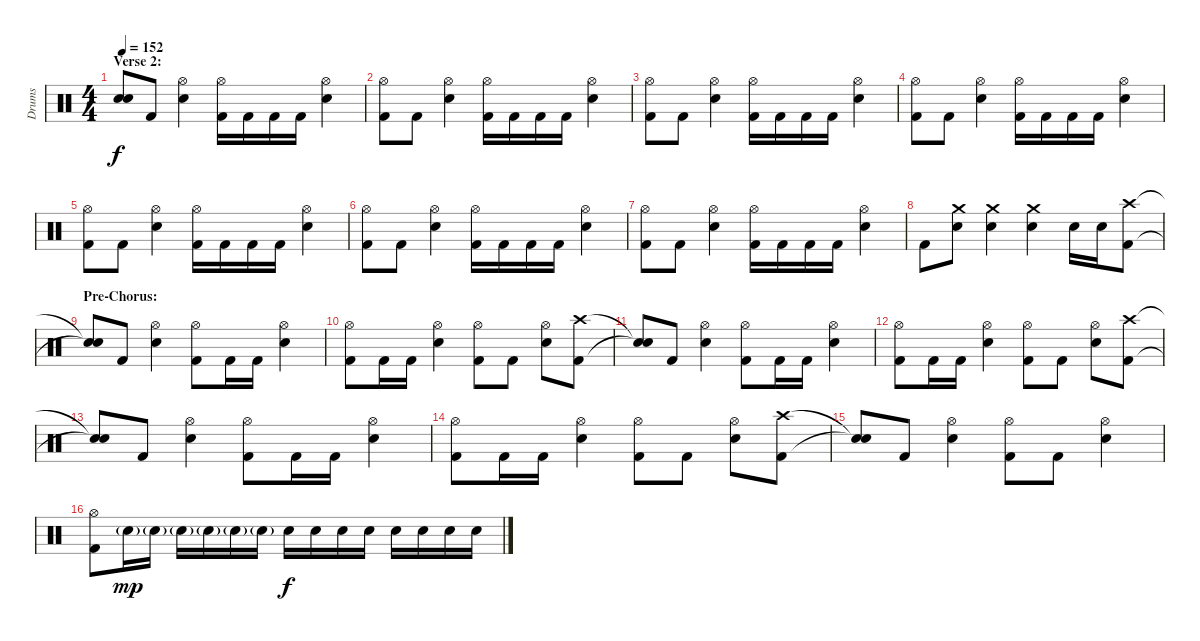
\track ("Drums" "Drums") {instrument percussion}
\staff {score}
\articulation defaults
\ts (4 4)
\section ("" "Verse 2:")
\tempo 152
\clef neutral
\ks c
("Snare (hit)"{t} "Snare (hit)"{t}).8{dy f} "Kick (hit) 2".8 ("Hi-Hat (open)" "Electric Snare (hit)").4 ("Hi-Hat (open)" "Kick (hit) 2").16 "Kick (hit) 2".16 "Kick (hit) 2".16 "Kick (hit) 2".16 ("Hi-Hat (open)" "Electric Snare (hit)").4 |
("Hi-Hat (open)" "Kick (hit) 2").8 "Kick (hit) 2".8 ("Hi-Hat (open)" "Electric Snare (hit)").4 ("Hi-Hat (open)" "Kick (hit) 2").16 "Kick (hit) 2".16 "Kick (hit) 2".16 "Kick (hit) 2".16 ("Hi-Hat (open)" "Electric Snare (hit)").4 |
("Hi-Hat (open)" "Kick (hit) 2").8 "Kick (hit) 2".8 ("Hi-Hat (open)" "Electric Snare (hit)").4 ("Hi-Hat (open)" "Kick (hit) 2").16 "Kick (hit) 2".16 "Kick (hit) 2".16 "Kick (hit) 2".16 ("Hi-Hat (open)" "Electric Snare (hit)").4 |
("Hi-Hat (open)" "Kick (hit) 2").8 "Kick (hit) 2".8 ("Hi-Hat (open)" "Electric Snare (hit)").4 ("Hi-Hat (open)" "Kick (hit) 2").16 "Kick (hit) 2".16 "Kick (hit) 2".16 "Kick (hit) 2".16 ("Hi-Hat (open)" "Electric Snare (hit)").4 |
("Hi-Hat (open)" "Kick (hit) 2").8 "Kick (hit) 2".8 ("Hi-Hat (open)" "Electric Snare (hit)").4 ("Hi-Hat (open)" "Kick (hit) 2").16 "Kick (hit) 2".16 "Kick (hit) 2".16 "Kick (hit) 2".16 ("Hi-Hat (open)" "Electric Snare (hit)").4 |
("Hi-Hat (open)" "Kick (hit) 2").8 "Kick (hit) 2".8 ("Hi-Hat (open)" "Electric Snare (hit)").4 ("Hi-Hat (open)" "Kick (hit) 2").16 "Kick (hit) 2".16 "Kick (hit) 2".16 "Kick (hit) 2".16 ("Hi-Hat (open)" "Electric Snare (hit)").4 |
("Hi-Hat (open)" "Kick (hit) 2").8 "Kick (hit) 2".8 ("Hi-Hat (open)" "Electric Snare (hit)").4 ("Hi-Hat (open)" "Kick (hit) 2").16 "Kick (hit) 2".16 "Kick (hit) 2".16 "Kick (hit) 2".16 ("Hi-Hat (open)" "Electric Snare (hit)").4 |
"Kick (hit) 2".8 ("Crash medium (hit)" "Electric Snare (hit)").8 ("Crash medium (hit)" "Electric Snare (hit)").4 ("Crash medium (hit)" "Electric Snare (hit)").4 "Electric Snare (hit)".16 "Electric Snare (hit)".16 ("Crash high (hit)" "Kick (hit) 2").8 |
\section ("" "Pre-Chorus:")
("Snare (hit)"{t} "Snare (hit)"{t}).8 "Kick (hit) 2".8 ("Hi-Hat (open)" "Electric Snare (hit)").4 ("Hi-Hat (open)" "Kick (hit) 2").8 "Kick (hit) 2".16 "Kick (hit) 2".16 ("Hi-Hat (open)" "Electric Snare (hit)").4 |
("Hi-Hat (open)" "Kick (hit) 2").8 "Kick (hit) 2".16 "Kick (hit) 2".16 ("Hi-Hat (open)" "Electric Snare (hit)").4 ("Hi-Hat (open)" "Kick (hit) 2").8 "Kick (hit) 2".8 ("Hi-Hat (open)" "Electric Snare (hit)").8 ("Crash high (hit)" "Kick (hit) 2").8 |
("Snare (hit)"{t} "Snare (hit)"{t}).8 "Kick (hit) 2".8 ("Hi-Hat (open)" "Electric Snare (hit)").4 ("Hi-Hat (open)" "Kick (hit) 2").8 "Kick (hit) 2".16 "Kick (hit) 2".16 ("Hi-Hat (open)" "Electric Snare (hit)").4 |
("Hi-Hat (open)" "Kick (hit) 2").8 "Kick (hit) 2".16 "Kick (hit) 2".16 ("Hi-Hat (open)" "Electric Snare (hit)").4 ("Hi-Hat (open)" "Kick (hit) 2").8 "Kick (hit) 2".8 ("Hi-Hat (open)" "Electric Snare (hit)").8 ("Crash high (hit)" "Kick (hit) 2").8 |
("Snare (hit)"{t} "Snare (hit)"{t}).8 "Kick (hit) 2".8 ("Hi-Hat (open)" "Electric Snare (hit)").4 ("Hi-Hat (open)" "Kick (hit) 2").8 "Kick (hit) 2".16 "Kick (hit) 2".16 ("Hi-Hat (open)" "Electric Snare (hit)").4 |
("Hi-Hat (open)" "Kick (hit) 2").8 "Kick (hit) 2".16 "Kick (hit) 2".16 ("Hi-Hat (open)" "Electric Snare (hit)").4 ("Hi-Hat (open)" "Kick (hit) 2").8 "Kick (hit) 2".8 ("Hi-Hat (open)" "Electric Snare (hit)").8 ("Crash high (hit)" "Kick (hit) 2").8 |
("Snare (hit)"{t} "Snare (hit)"{t}).8 "Kick (hit) 2".8 ("Hi-Hat (open)" "Electric Snare (hit)").4 ("Hi-Hat (open)" "Kick (hit) 2").8 "Kick (hit) 2".8 ("Hi-Hat (open)" "Electric Snare (hit)").4 |
("Hi-Hat (open)" "Kick (hit) 2").8 "Electric Snare (hit)"{g}.16{dy mp} "Electric Snare (hit)"{g}.16 "Electric Snare (hit)"{g}.16 "Electric Snare (hit)"{g}.16 "Electric Snare (hit)"{g}.16 "Electric Snare (hit)"{g}.16 "Electric Snare (hit)".16{dy f} "Electric Snare (hit)".16 "Electric Snare (hit)".16 "Electric Snare (hit)".16 "Electric Snare (hit)".16 "Electric Snare (hit)".16 "Electric Snare (hit)".16 "Electric Snare (hit)".16
